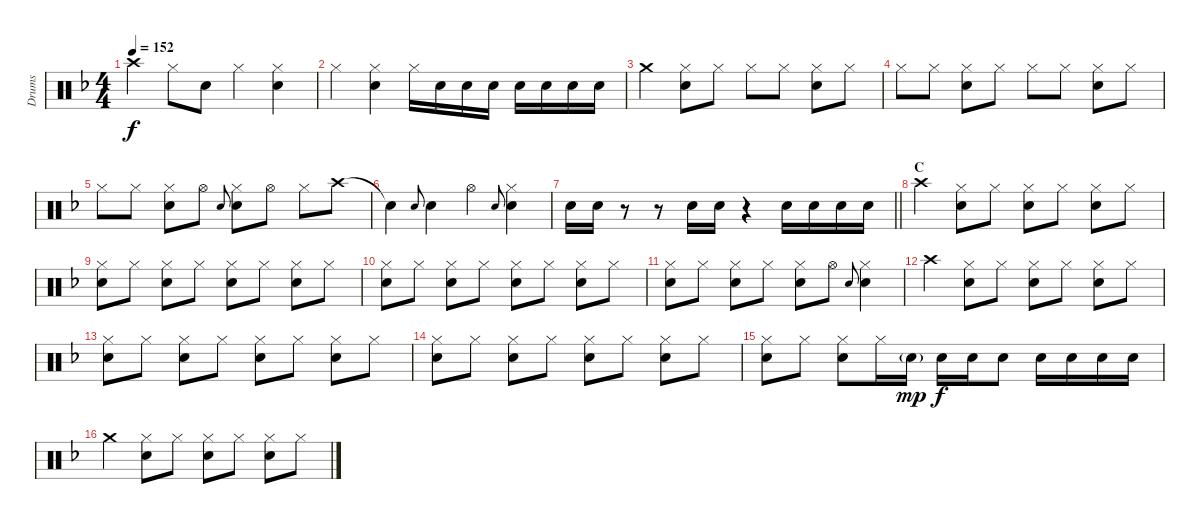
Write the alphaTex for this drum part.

\track ("Drums" "Drums") {instrument percussion}
\staff {score}
\articulation defaults
\ts (4 4)
\tempo 152
\clef neutral
\ks f "Crash high (hit)".4{dy f} "Hi-Hat (closed)".8 "Snare (hit) 2".8 "Hi-Hat (closed)".4
("Hi-Hat (closed)" "Snare (hit) 2").4 |
"Hi-Hat (closed)".4 ("Hi-Hat (closed)" "Snare (hit) 2").4 "Hi-Hat (closed)".16 "Snare (hit) 2".16 "Snare (hit) 2".16 "Snare (hit) 2".16 "Snare (hit) 2".16 "Snare (hit) 2".16 "Snare (hit) 2".16 "Snare (hit) 2".16 |
"Crash medium (hit)".4 ("Hi-Hat (closed)" "Snare (hit) 2").8 "Hi-Hat (closed)".8 "Hi-Hat (closed)".8 "Hi-Hat (closed)".8 ("Hi-Hat (closed)" "Snare (hit) 2").8 "Hi-Hat (closed)".8 |
"Hi-Hat (closed)".8 "Hi-Hat (closed)".8 ("Hi-Hat (closed)" "Snare (hit) 2").8 "Hi-Hat (closed)".8 "Hi-Hat (closed)".8 "Hi-Hat (closed)".8 ("Hi-Hat (closed)" "Snare (hit) 2").8 "Hi-Hat (closed)".8 |
"Hi-Hat (closed)".8 "Hi-Hat (closed)".8 ("Hi-Hat (closed)" "Snare (hit) 2").8 "Hi-Hat (open)".8 "Snare (hit) 2".8{gr onbeat} ("Hi-Hat (closed)" "Snare (hit) 2").8 "Hi-Hat (open)".8 "Hi-Hat (closed)".8 "Crash high (hit)".8 |
"Snare (hit)"{t}.4 "Snare (hit) 2".8{gr onbeat} "Snare (hit) 2".4 "Hi-Hat (open)".4 "Snare (hit) 2".8{gr onbeat} ("Hi-Hat (closed)" "Snare (hit) 2").4 |
\barLineRight lightlight "Snare (hit) 2".16 "Snare (hit) 2".16
r.8 r.8 "Snare (hit) 2".16 "Snare (hit) 2".16 r.4 "Snare (hit) 2".16 "Snare (hit) 2".16 "Snare (hit) 2".16 "Snare (hit) 2".16 |
\section ("" "C")
"Crash high (hit)".4 ("Hi-Hat (closed)" "Snare (hit) 2").8 "Hi-Hat (closed)".8 ("Hi-Hat (closed)" "Snare (hit) 2").8 "Hi-Hat (closed)".8 ("Hi-Hat (closed)" "Snare (hit) 2").8 "Hi-Hat (closed)".8 |
("Hi-Hat (closed)" "Snare (hit) 2").8 "Hi-Hat (closed)".8 ("Hi-Hat (closed)" "Snare (hit) 2").8 "Hi-Hat (closed)".8 ("Hi-Hat (closed)" "Snare (hit) 2").8 "Hi-Hat (closed)".8 ("Hi-Hat (closed)" "Snare (hit) 2").8 "Hi-Hat (closed)".8 |
("Hi-Hat (closed)" "Snare (hit) 2").8 "Hi-Hat (closed)".8 ("Hi-Hat (closed)" "Snare (hit) 2").8 "Hi-Hat (closed)".8 ("Hi-Hat (closed)" "Snare (hit) 2").8 "Hi-Hat (closed)".8 ("Hi-Hat (closed)" "Snare (hit) 2").8 "Hi-Hat (closed)".8 |
("Hi-Hat (closed)" "Snare (hit) 2").8 "Hi-Hat (closed)".8 ("Hi-Hat (closed)" "Snare (hit) 2").8 "Hi-Hat (closed)".8 ("Hi-Hat (closed)" "Snare (hit) 2").8 "Hi-Hat (open)".8 "Snare (hit) 2".8{gr onbeat} ("Hi-Hat (closed)" "Snare (hit) 2").4 |
"Crash high (hit)".4 ("Hi-Hat (closed)" "Snare (hit) 2").8 "Hi-Hat (closed)".8 ("Hi-Hat (closed)" "Snare (hit) 2").8 "Hi-Hat (closed)".8 ("Hi-Hat (closed)" "Snare (hit) 2").8 "Hi-Hat (closed)".8 |
("Hi-Hat (closed)" "Snare (hit) 2").8 "Hi-Hat (closed)".8 ("Hi-Hat (closed)" "Snare (hit) 2").8 "Hi-Hat (closed)".8 ("Hi-Hat (closed)" "Snare (hit) 2").8 "Hi-Hat (closed)".8 ("Hi-Hat (closed)" "Snare (hit) 2").8 "Hi-Hat (closed)".8 |
("Hi-Hat (closed)" "Snare (hit) 2").8 "Hi-Hat (closed)".8 ("Hi-Hat (closed)" "Snare (hit) 2").8 "Hi-Hat (closed)".8 ("Hi-Hat (closed)" "Snare (hit) 2").8 "Hi-Hat (closed)".8 ("Hi-Hat (closed)" "Snare (hit) 2").8 "Hi-Hat (closed)".8 |
("Hi-Hat (closed)" "Snare (hit) 2").8 "Hi-Hat (closed)".8 ("Hi-Hat (closed)" "Snare (hit) 2").8 "Hi-Hat (closed)".16 "Snare (hit) 2"{g}.16{dy mp} "Snare (hit) 2".16{dy f} "Snare (hit) 2".16 "Snare (hit) 2".8 "Snare (hit) 2".16 "Snare (hit) 2".16 "Snare (hit) 2".16 "Snare (hit) 2".16 |
"Crash medium (hit)".4 ("Hi-Hat (closed)" "Snare (hit) 2").8 "Hi-Hat (closed)".8 ("Hi-Hat (closed)" "Snare (hit) 2").8 "Hi-Hat (closed)".8 ("Hi-Hat (closed)" "Snare (hit) 2").8 "Hi-Hat (closed)".8
